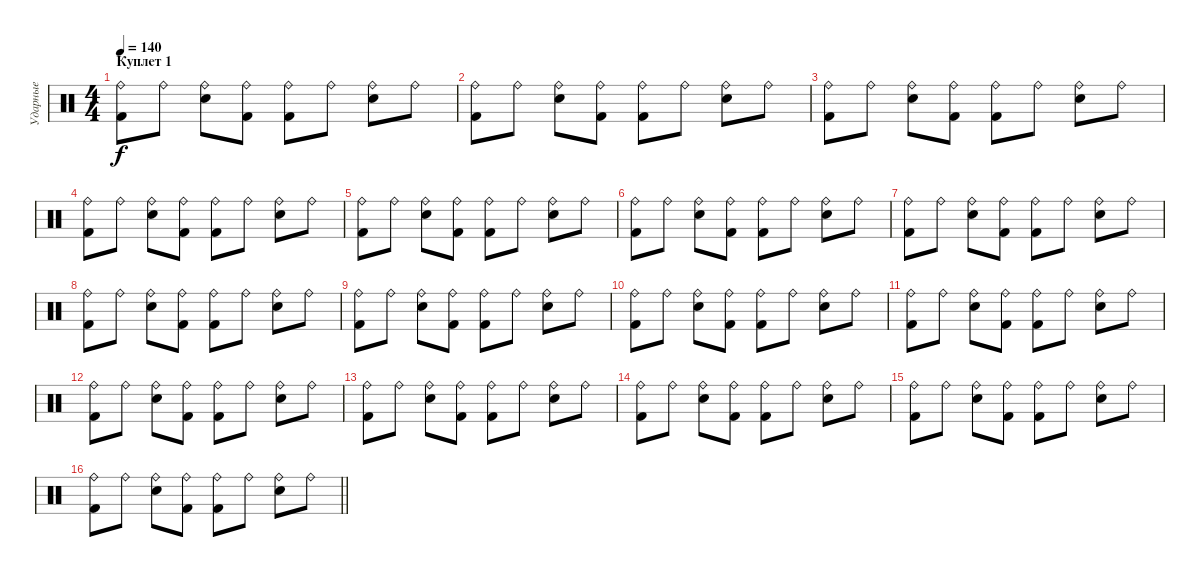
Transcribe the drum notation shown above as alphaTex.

\track ("Ударные" "Ударные") {solo instrument percussion}
\staff {score}
\articulation defaults
\ts (4 4)
\section ("" "Куплет 1")
\tempo 140
\clef neutral
\ks c
("Ride (bell)" "Kick (hit) 2").8{dy f} "Ride (bell)".8 ("Ride (bell)" "Electric Snare (hit)").8 ("Ride (bell)" "Kick (hit) 2").8 ("Ride (bell)" "Kick (hit) 2").8 "Ride (bell)".8 ("Ride (bell)" "Electric Snare (hit)").8 "Ride (bell)".8 |
("Ride (bell)" "Kick (hit) 2").8 "Ride (bell)".8 ("Ride (bell)" "Electric Snare (hit)").8 ("Ride (bell)" "Kick (hit) 2").8 ("Ride (bell)" "Kick (hit) 2").8 "Ride (bell)".8 ("Ride (bell)" "Electric Snare (hit)").8 "Ride (bell)".8 |
("Ride (bell)" "Kick (hit) 2").8 "Ride (bell)".8 ("Ride (bell)" "Electric Snare (hit)").8 ("Ride (bell)" "Kick (hit) 2").8 ("Ride (bell)" "Kick (hit) 2").8 "Ride (bell)".8 ("Ride (bell)" "Electric Snare (hit)").8 "Ride (bell)".8 |
("Ride (bell)" "Kick (hit) 2").8 "Ride (bell)".8 ("Ride (bell)" "Electric Snare (hit)").8 ("Ride (bell)" "Kick (hit) 2").8 ("Ride (bell)" "Kick (hit) 2").8 "Ride (bell)".8 ("Ride (bell)" "Electric Snare (hit)").8 "Ride (bell)".8 |
("Ride (bell)" "Kick (hit) 2").8 "Ride (bell)".8 ("Ride (bell)" "Electric Snare (hit)").8 ("Ride (bell)" "Kick (hit) 2").8 ("Ride (bell)" "Kick (hit) 2").8 "Ride (bell)".8 ("Ride (bell)" "Electric Snare (hit)").8 "Ride (bell)".8 |
("Ride (bell)" "Kick (hit) 2").8 "Ride (bell)".8 ("Ride (bell)" "Electric Snare (hit)").8 ("Ride (bell)" "Kick (hit) 2").8 ("Ride (bell)" "Kick (hit) 2").8 "Ride (bell)".8 ("Ride (bell)" "Electric Snare (hit)").8 "Ride (bell)".8 |
("Ride (bell)" "Kick (hit) 2").8 "Ride (bell)".8 ("Ride (bell)" "Electric Snare (hit)").8 ("Ride (bell)" "Kick (hit) 2").8 ("Ride (bell)" "Kick (hit) 2").8 "Ride (bell)".8 ("Ride (bell)" "Electric Snare (hit)").8 "Ride (bell)".8 |
("Ride (bell)" "Kick (hit) 2").8 "Ride (bell)".8 ("Ride (bell)" "Electric Snare (hit)").8 ("Ride (bell)" "Kick (hit) 2").8 ("Ride (bell)" "Kick (hit) 2").8 "Ride (bell)".8 ("Ride (bell)" "Electric Snare (hit)").8 "Ride (bell)".8 |
("Ride (bell)" "Kick (hit) 2").8 "Ride (bell)".8 ("Ride (bell)" "Electric Snare (hit)").8 ("Ride (bell)" "Kick (hit) 2").8 ("Ride (bell)" "Kick (hit) 2").8 "Ride (bell)".8 ("Ride (bell)" "Electric Snare (hit)").8 "Ride (bell)".8 |
("Ride (bell)" "Kick (hit) 2").8 "Ride (bell)".8 ("Ride (bell)" "Electric Snare (hit)").8 ("Ride (bell)" "Kick (hit) 2").8 ("Ride (bell)" "Kick (hit) 2").8 "Ride (bell)".8 ("Ride (bell)" "Electric Snare (hit)").8 "Ride (bell)".8 |
("Ride (bell)" "Kick (hit) 2").8 "Ride (bell)".8 ("Ride (bell)" "Electric Snare (hit)").8 ("Ride (bell)" "Kick (hit) 2").8 ("Ride (bell)" "Kick (hit) 2").8 "Ride (bell)".8 ("Ride (bell)" "Electric Snare (hit)").8 "Ride (bell)".8 |
("Ride (bell)" "Kick (hit) 2").8 "Ride (bell)".8 ("Ride (bell)" "Electric Snare (hit)").8 ("Ride (bell)" "Kick (hit) 2").8 ("Ride (bell)" "Kick (hit) 2").8 "Ride (bell)".8 ("Ride (bell)" "Electric Snare (hit)").8 "Ride (bell)".8 |
("Ride (bell)" "Kick (hit) 2").8 "Ride (bell)".8 ("Ride (bell)" "Electric Snare (hit)").8 ("Ride (bell)" "Kick (hit) 2").8 ("Ride (bell)" "Kick (hit) 2").8 "Ride (bell)".8 ("Ride (bell)" "Electric Snare (hit)").8 "Ride (bell)".8 |
("Ride (bell)" "Kick (hit) 2").8 "Ride (bell)".8 ("Ride (bell)" "Electric Snare (hit)").8 ("Ride (bell)" "Kick (hit) 2").8 ("Ride (bell)" "Kick (hit) 2").8 "Ride (bell)".8 ("Ride (bell)" "Electric Snare (hit)").8 "Ride (bell)".8 |
("Ride (bell)" "Kick (hit) 2").8 "Ride (bell)".8 ("Ride (bell)" "Electric Snare (hit)").8 ("Ride (bell)" "Kick (hit) 2").8 ("Ride (bell)" "Kick (hit) 2").8 "Ride (bell)".8 ("Ride (bell)" "Electric Snare (hit)").8 "Ride (bell)".8 |
\barLineRight lightlight
("Ride (bell)" "Kick (hit) 2").8 "Ride (bell)".8 ("Ride (bell)" "Electric Snare (hit)").8 ("Ride (bell)" "Kick (hit) 2").8 ("Ride (bell)" "Kick (hit) 2").8 "Ride (bell)".8 ("Ride (bell)" "Electric Snare (hit)").8 "Ride (bell)".8
